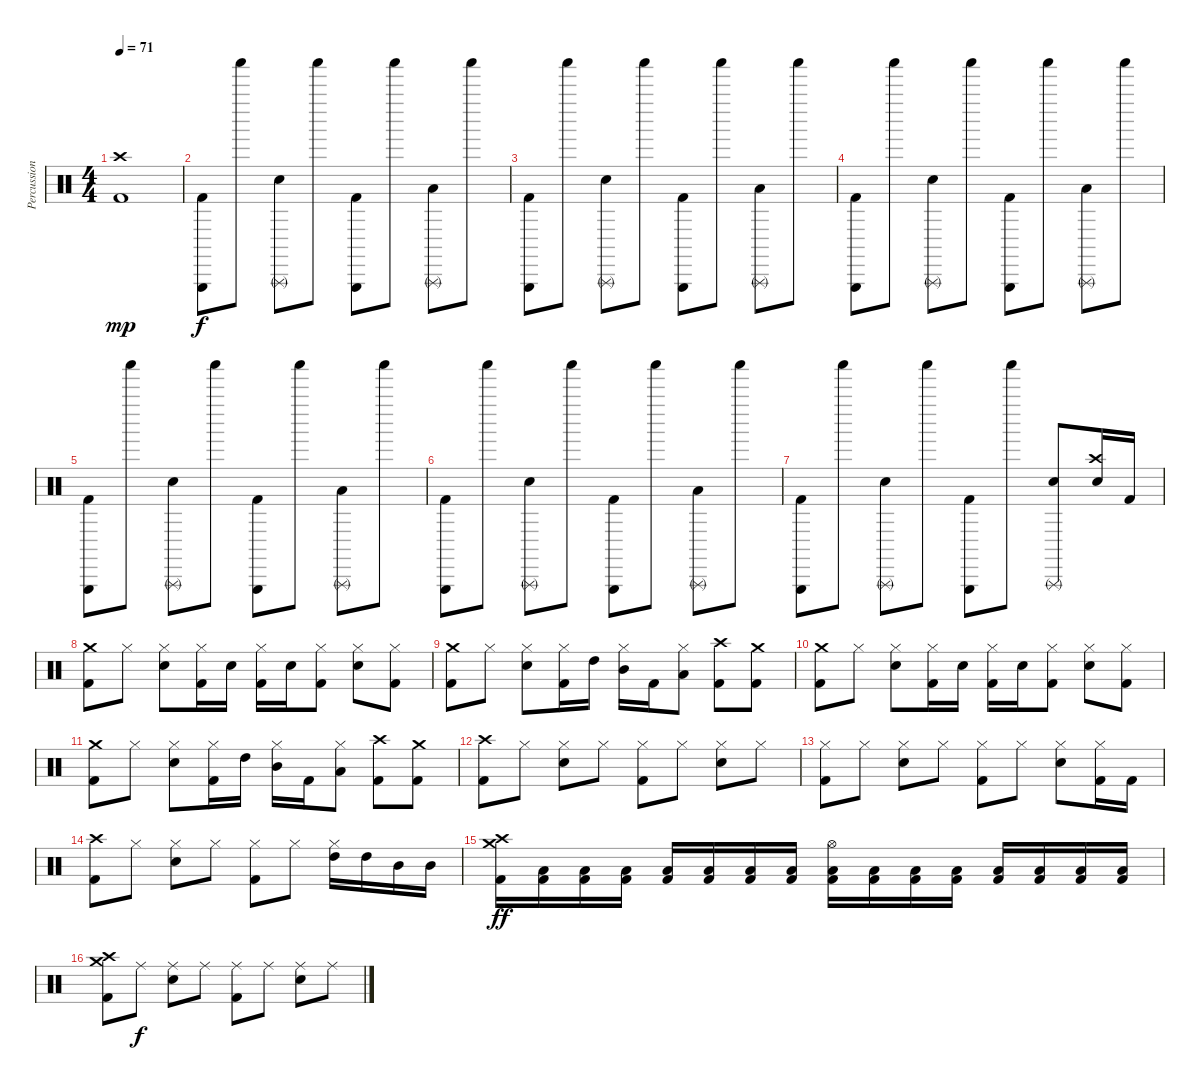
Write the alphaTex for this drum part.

\track ("Percussion" "Percussion") {instrument percussion}
\staff {score}
\articulation defaults
\ts (4 4)
\tempo 71
\clef neutral
\ks c
("Crash high (hit)" "Kick (hit) 2").1{dy mp} |
("Triangle (hit)" "Kick (hit) 2").8{dy f} "Shaker (hit)".8 ("Triangle (rnute)" "Electric Snare (hit)").8 "Shaker (hit)".8 ("Triangle (hit)" "Kick (hit) 2").8 "Shaker (hit)".8 ("Triangle (rnute)" "Low Tom (hit)").8 "Shaker (hit)".8 |
("Triangle (hit)" "Kick (hit) 2").8 "Shaker (hit)".8 ("Triangle (rnute)" "Electric Snare (hit)").8 "Shaker (hit)".8 ("Triangle (hit)" "Kick (hit) 2").8 "Shaker (hit)".8 ("Triangle (rnute)" "Low Tom (hit)").8 "Shaker (hit)".8 |
("Triangle (hit)" "Kick (hit) 2").8 "Shaker (hit)".8 ("Triangle (rnute)" "Electric Snare (hit)").8 "Shaker (hit)".8 ("Triangle (hit)" "Kick (hit) 2").8 "Shaker (hit)".8 ("Triangle (rnute)" "Low Tom (hit)").8 "Shaker (hit)".8 |
("Triangle (hit)" "Kick (hit) 2").8 "Shaker (hit)".8 ("Triangle (rnute)" "Electric Snare (hit)").8 "Shaker (hit)".8 ("Triangle (hit)" "Kick (hit) 2").8 "Shaker (hit)".8 ("Triangle (rnute)" "Low Tom (hit)").8 "Shaker (hit)".8 |
("Triangle (hit)" "Kick (hit) 2").8 "Shaker (hit)".8 ("Triangle (rnute)" "Electric Snare (hit)").8 "Shaker (hit)".8 ("Triangle (hit)" "Kick (hit) 2").8 "Shaker (hit)".8 ("Triangle (rnute)" "Low Tom (hit)").8 "Shaker (hit)".8 |
("Triangle (hit)" "Kick (hit) 2").8 "Shaker (hit)".8 ("Triangle (rnute)" "Electric Snare (hit)").8 "Shaker (hit)".8 ("Triangle (hit)" "Kick (hit) 2").8 "Shaker (hit)".8 ("Triangle (rnute)" "Electric Snare (hit)").8 ("Crash high (hit)" "Electric Snare (hit)").16 "Kick (hit) 2".16 |
("Crash medium (hit)" "Kick (hit) 2").8 "Hi-Hat (closed)".8 ("Hi-Hat (closed)" "Electric Snare (hit)").8 ("Hi-Hat (closed)" "Kick (hit) 2").16 "Electric Snare (hit)".16 ("Hi-Hat (closed)" "Kick (hit) 2").16 "Electric Snare (hit)".16 ("Hi-Hat (closed)" "Kick (hit) 2").8 ("Hi-Hat (closed)" "Electric Snare (hit)").8 ("Hi-Hat (closed)" "Kick (hit) 2").8 |
("Crash medium (hit)" "Kick (hit) 2").8 "Hi-Hat (closed)".8 ("Hi-Hat (closed)" "Electric Snare (hit)").8 ("Hi-Hat (closed)" "Kick (hit) 2").16 "High Tom (hit)".16 ("Hi-Hat (closed)" "Mid Tom (hit)").16 "Kick (hit) 2".16 ("Hi-Hat (closed)" "Low Tom (hit)").8 ("Crash high (hit)" "Kick (hit) 2").8 ("Crash medium (hit)" "Kick (hit) 2").8 |
("Crash medium (hit)" "Kick (hit) 2").8 "Hi-Hat (closed)".8 ("Hi-Hat (closed)" "Electric Snare (hit)").8 ("Hi-Hat (closed)" "Kick (hit) 2").16 "Electric Snare (hit)".16 ("Hi-Hat (closed)" "Kick (hit) 2").16 "Electric Snare (hit)".16 ("Hi-Hat (closed)" "Kick (hit) 2").8 ("Hi-Hat (closed)" "Electric Snare (hit)").8 ("Hi-Hat (closed)" "Kick (hit) 2").8 |
("Crash medium (hit)" "Kick (hit) 2").8 "Hi-Hat (closed)".8 ("Hi-Hat (closed)" "Electric Snare (hit)").8 ("Hi-Hat (closed)" "Kick (hit) 2").16 "High Tom (hit)".16 ("Hi-Hat (closed)" "Mid Tom (hit)").16 "Kick (hit) 2".16 ("Hi-Hat (closed)" "Low Tom (hit)").8 ("Crash high (hit)" "Kick (hit) 2").8 ("Crash medium (hit)" "Kick (hit) 2").8 |
("Crash high (hit)" "Kick (hit) 2").8 "Hi-Hat (closed)".8 ("Hi-Hat (closed)" "Electric Snare (hit)").8 "Hi-Hat (closed)".8 ("Hi-Hat (closed)" "Kick (hit) 2").8 "Hi-Hat (closed)".8 ("Hi-Hat (closed)" "Electric Snare (hit)").8 "Hi-Hat (closed)".8 |
("Hi-Hat (closed)" "Kick (hit) 2").8 "Hi-Hat (closed)".8 ("Hi-Hat (closed)" "Electric Snare (hit)").8 "Hi-Hat (closed)".8 ("Hi-Hat (closed)" "Kick (hit) 2").8 "Hi-Hat (closed)".8 ("Hi-Hat (closed)" "Electric Snare (hit)").8 ("Hi-Hat (closed)" "Kick (hit) 2").16 "Kick (hit) 2".16 |
("Crash high (hit)" "Kick (hit) 2").8 "Hi-Hat (closed)".8 ("Hi-Hat (closed)" "Electric Snare (hit)").8 "Hi-Hat (closed)".8 ("Hi-Hat (closed)" "Kick (hit) 2").8 "Hi-Hat (closed)".8 ("Hi-Hat (closed)" "High Tom (hit)").16 "High Tom (hit)".16 "Mid Tom (hit)".16 "Mid Tom (hit)".16 |
("Crash medium (hit)" "Crash high (hit)" "Kick (hit) 2").16{dy ff} ("Low Tom (hit)" "Kick (hit) 2").16 ("Low Tom (hit)" "Kick (hit) 2").16 ("Low Tom (hit)" "Kick (hit) 2").16 ("Low Tom (hit)" "Kick (hit) 2").16 ("Low Tom (hit)" "Kick (hit) 2").16 ("Low Tom (hit)" "Kick (hit) 2").16 ("Low Tom (hit)" "Kick (hit) 2").16 ("Hi-Hat (open)" "Low Tom (hit)" "Kick (hit) 2").16 ("Low Tom (hit)" "Kick (hit) 2").16 ("Low Tom (hit)" "Kick (hit) 2").16 ("Low Tom (hit)" "Kick (hit) 2").16 ("Low Tom (hit)" "Kick (hit) 2").16 ("Low Tom (hit)" "Kick (hit) 2").16 ("Low Tom (hit)" "Kick (hit) 2").16 ("Low Tom (hit)" "Kick (hit) 2").16 |
("Crash medium (hit)" "Crash high (hit)" "Kick (hit) 2").8 "Ride (middle)".8{dy f} ("Ride (middle)" "Electric Snare (hit)").8 "Ride (middle)".8 ("Ride (middle)" "Kick (hit) 2").8 "Ride (middle)".8 ("Ride (middle)" "Electric Snare (hit)").8 "Ride (middle)".8
